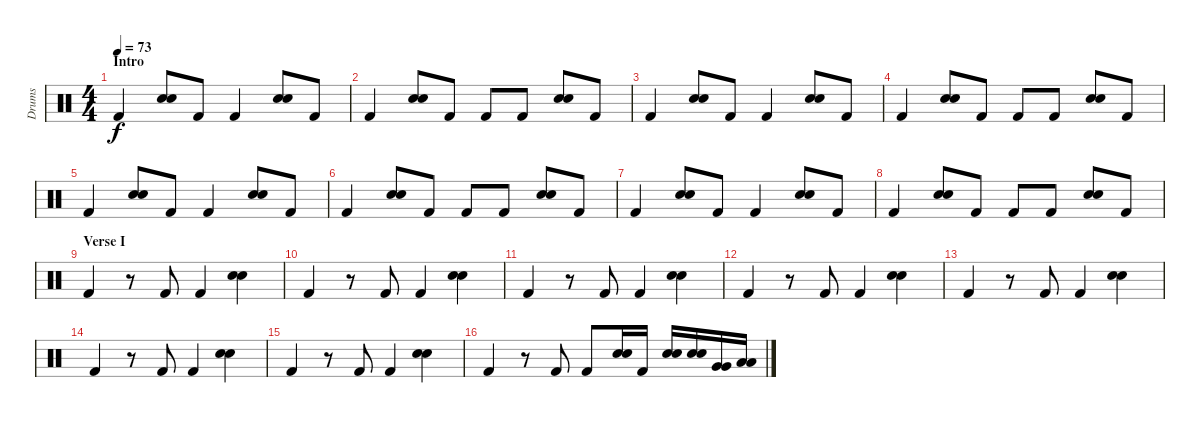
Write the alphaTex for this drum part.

\track ("Drums" "Drums") {instrument percussion}
\staff {score}
\articulation defaults
\ts (4 4)
\section ("" "Intro")
\tempo 73
\clef neutral
\ks c "Kick (hit) 2".4{dy f}
("Electric Snare (hit)" "Snare (hit) 2").8 "Kick (hit) 2".8 "Kick (hit) 2".4 ("Electric Snare (hit)" "Snare (hit) 2").8 "Kick (hit) 2".8 |
"Kick (hit) 2".4 ("Electric Snare (hit)" "Snare (hit) 2").8 "Kick (hit) 2".8 "Kick (hit) 2".8 "Kick (hit) 2".8 ("Electric Snare (hit)" "Snare (hit) 2").8 "Kick (hit) 2".8 |
"Kick (hit) 2".4 ("Electric Snare (hit)" "Snare (hit) 2").8 "Kick (hit) 2".8 "Kick (hit) 2".4 ("Electric Snare (hit)" "Snare (hit) 2").8 "Kick (hit) 2".8 |
"Kick (hit) 2".4 ("Electric Snare (hit)" "Snare (hit) 2").8 "Kick (hit) 2".8 "Kick (hit) 2".8 "Kick (hit) 2".8 ("Electric Snare (hit)" "Snare (hit) 2").8 "Kick (hit) 2".8 |
"Kick (hit) 2".4 ("Electric Snare (hit)" "Snare (hit) 2").8 "Kick (hit) 2".8 "Kick (hit) 2".4 ("Electric Snare (hit)" "Snare (hit) 2").8 "Kick (hit) 2".8 |
"Kick (hit) 2".4 ("Electric Snare (hit)" "Snare (hit) 2").8 "Kick (hit) 2".8 "Kick (hit) 2".8 "Kick (hit) 2".8 ("Electric Snare (hit)" "Snare (hit) 2").8 "Kick (hit) 2".8 |
"Kick (hit) 2".4 ("Electric Snare (hit)" "Snare (hit) 2").8 "Kick (hit) 2".8 "Kick (hit) 2".4 ("Electric Snare (hit)" "Snare (hit) 2").8 "Kick (hit) 2".8 |
"Kick (hit) 2".4 ("Electric Snare (hit)" "Snare (hit) 2").8 "Kick (hit) 2".8 "Kick (hit) 2".8 "Kick (hit) 2".8 ("Electric Snare (hit)" "Snare (hit) 2").8 "Kick (hit) 2".8 |
\section ("" "Verse I")
"Kick (hit) 2".4 r.8 "Kick (hit) 2".8 "Kick (hit) 2".4 ("Electric Snare (hit)" "Snare (hit) 2").4 |
"Kick (hit) 2".4 r.8 "Kick (hit) 2".8 "Kick (hit) 2".4 ("Electric Snare (hit)" "Snare (hit) 2").4 |
"Kick (hit) 2".4 r.8 "Kick (hit) 2".8 "Kick (hit) 2".4 ("Electric Snare (hit)" "Snare (hit) 2").4 |
"Kick (hit) 2".4 r.8 "Kick (hit) 2".8 "Kick (hit) 2".4 ("Electric Snare (hit)" "Snare (hit) 2").4 |
"Kick (hit) 2".4 r.8 "Kick (hit) 2".8 "Kick (hit) 2".4 ("Electric Snare (hit)" "Snare (hit) 2").4 |
"Kick (hit) 2".4 r.8 "Kick (hit) 2".8 "Kick (hit) 2".4 ("Electric Snare (hit)" "Snare (hit) 2").4 |
"Kick (hit) 2".4 r.8 "Kick (hit) 2".8 "Kick (hit) 2".4 ("Electric Snare (hit)" "Snare (hit) 2").4 |
"Kick (hit) 2".4 r.8 "Kick (hit) 2".8 "Kick (hit) 2".8 ("Electric Snare (hit)" "Snare (hit) 2").16 "Kick (hit) 2".16 ("Electric Snare (hit)" "Snare (hit) 2").16 ("Electric Snare (hit)" "Snare (hit) 2").16 ("Very Low Tom (hit)" "Very Low Tom (hit)").16 ("Low Floor Tom (hit)" "Low Floor Tom (hit)").16
